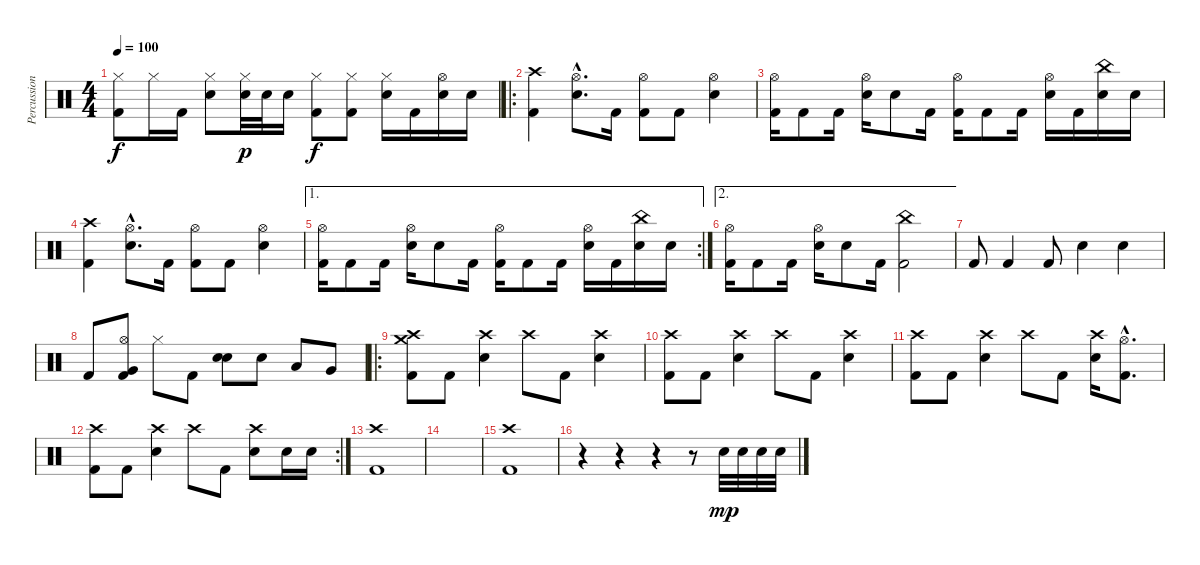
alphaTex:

\track ("Percussions" "Percussion") {instrument percussion}
\staff {score}
\articulation defaults
\ts (4 4)
\tempo 100
\clef neutral
\ks c
("Hi-Hat (closed)" "Kick (hit) 2").8{dy f} "Hi-Hat (closed)".16 "Kick (hit) 2".16 ("Hi-Hat (closed)" "Snare (hit) 2").8 ("Hi-Hat (closed)" "Snare (hit) 2").32{dy p} "Snare (hit) 2".32 "Snare (hit) 2".16 ("Hi-Hat (closed)" "Kick (hit) 2").8{dy f} ("Hi-Hat (closed)" "Kick (hit) 2").8 ("Hi-Hat (closed)" "Snare (hit) 2").16 "Kick (hit) 2".16 ("Hi-Hat (open)" "Snare (hit) 2").16 "Snare (hit) 2".16 |
\ro
("Crash high (hit)" "Kick (hit) 2").4 ("Hi-Hat (open)"{hac} "Snare (hit) 2"{hac}).8{d} "Kick (hit) 2".16 ("Hi-Hat (open)" "Kick (hit) 2").8 "Kick (hit) 2".8 ("Hi-Hat (open)" "Snare (hit) 2").4 |
("Hi-Hat (open)" "Kick (hit) 2").16 "Kick (hit) 2".8 "Kick (hit) 2".16 ("Hi-Hat (open)" "Snare (hit) 2").16 "Snare (hit) 2".8 "Kick (hit) 2".16 ("Hi-Hat (open)" "Kick (hit) 2").16 "Kick (hit) 2".8 "Kick (hit) 2".16 ("Hi-Hat (open)" "Snare (hit) 2").16 "Kick (hit) 2".16 ("China (hit)" "Snare (hit) 2").16 "Snare (hit) 2".16 |
("Crash high (hit)" "Kick (hit) 2").4 ("Hi-Hat (open)"{hac} "Snare (hit) 2"{hac}).8{d} "Kick (hit) 2".16 ("Hi-Hat (open)" "Kick (hit) 2").8 "Kick (hit) 2".8 ("Hi-Hat (open)" "Snare (hit) 2").4 |
\ae 1
\rc 2
("Hi-Hat (open)" "Kick (hit) 2").16 "Kick (hit) 2".8 "Kick (hit) 2".16 ("Hi-Hat (open)" "Snare (hit) 2").16 "Snare (hit) 2".8 "Kick (hit) 2".16 ("Hi-Hat (open)" "Kick (hit) 2").16 "Kick (hit) 2".8 "Kick (hit) 2".16 ("Hi-Hat (open)" "Snare (hit) 2").16 "Kick (hit) 2".16 ("China (hit)" "Snare (hit) 2").16 "Snare (hit) 2".16 |
\ae 2
("Hi-Hat (open)" "Kick (hit) 2").16 "Kick (hit) 2".8 "Kick (hit) 2".16 ("Hi-Hat (open)" "Snare (hit) 2").16 "Snare (hit) 2".8 "Kick (hit) 2".16 ("China (hit)" "Kick (hit) 2").2 |
"Kick (hit) 2".8 "Kick (hit) 2".4 "Kick (hit) 2".8 "Snare (hit) 2".4 "Snare (hit) 2".4 |
"Kick (hit) 2".8 ("Hi-Hat (open)" "Very Low Tom (hit)" "Kick (hit) 2").8 "Hi-Hat (closed)".8 "Kick (hit) 2".8 ("Snare (hit) 2" "Snare (hit) 2").8{bd 120} "Snare (hit) 2".8 "Low Tom (hit)".8 "Very Low Tom (hit)".8 |
\ro
("Crash high (hit)" "Crash medium (hit)" "Kick (hit) 2").8 "Kick (hit) 2".8 ("Crash high (hit)" "Snare (hit) 2").4 "Crash high (hit)".8 "Kick (hit) 2".8 ("Crash high (hit)" "Snare (hit) 2").4 |
("Crash high (hit)" "Kick (hit) 2").8 "Kick (hit) 2".8 ("Crash high (hit)" "Snare (hit) 2").4 "Crash high (hit)".8 "Kick (hit) 2".8 ("Crash high (hit)" "Snare (hit) 2").4 |
("Crash high (hit)" "Kick (hit) 2").8 "Kick (hit) 2".8 ("Crash high (hit)" "Snare (hit) 2").4 "Crash high (hit)".8 "Kick (hit) 2".8 ("Crash high (hit)" "Snare (hit) 2").16 ("Hi-Hat (open)"{hac} "Kick (hit) 2"{hac}).8{d} |
\rc 2
("Crash high (hit)" "Kick (hit) 2").8 "Kick (hit) 2".8 ("Crash high (hit)" "Snare (hit) 2").4 "Crash high (hit)".8 "Kick (hit) 2".8 ("Crash high (hit)" "Snare (hit) 2").8 "Snare (hit) 2".16 "Snare (hit) 2".16 |
("Crash high (hit)" "Kick (hit) 2").1 |
|
("Crash high (hit)" "Kick (hit) 2").1 |
r.4 r.4 r.4 r.8 "Snare (hit) 2".32{dy mp} "Snare (hit) 2".32 "Snare (hit) 2".32 "Snare (hit) 2".32
